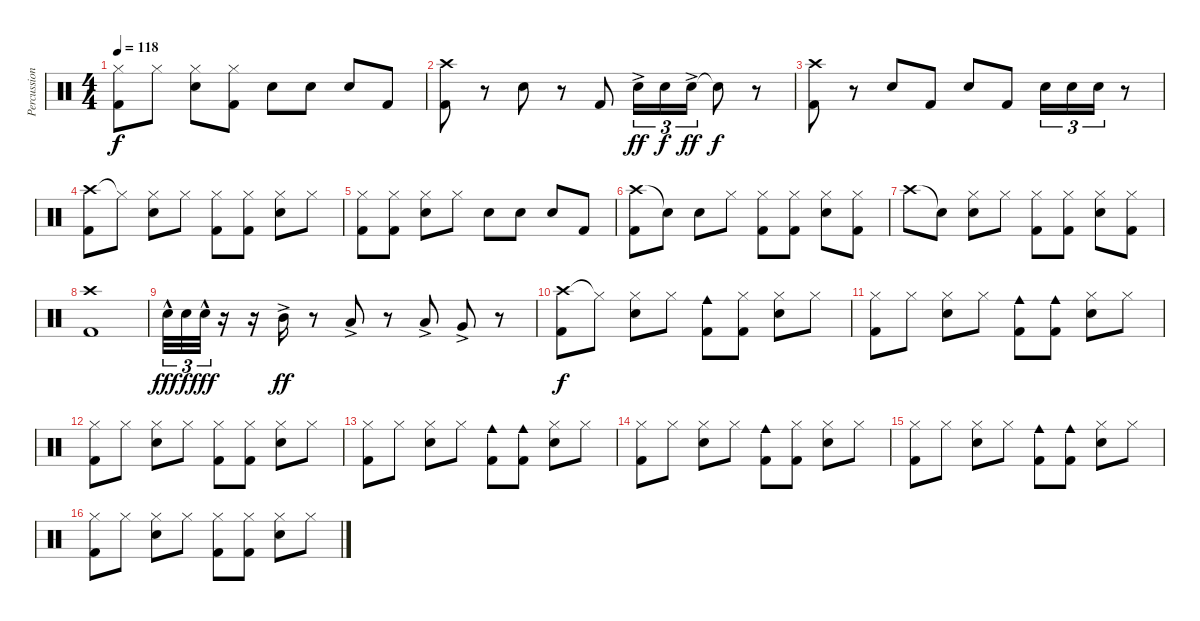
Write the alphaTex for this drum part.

\track ("Percussion" "Percussion") {instrument percussion}
\staff {score}
\articulation defaults
\ts (4 4)
\tempo 118
\clef neutral
\ks c
("Hi-Hat (closed)" "Kick (hit) 2").8{dy f} "Hi-Hat (closed)".8 ("Hi-Hat (closed)" "Snare (hit) 2").8 ("Hi-Hat (closed)" "Kick (hit) 2").8 "Snare (hit) 2".8 "Snare (hit) 2".8 "Snare (hit) 2".8 "Kick (hit) 2".8 |
("Crash high (hit)" "Kick (hit) 2").8 r.8 "Snare (hit) 2".8 r.8 "Kick (hit) 2".8 "Snare (hit) 2"{ac}.16{tu (3 2) dy ff} "Snare (hit) 2".16{tu (3 2) dy f} "Snare (hit) 2"{ac}.16{tu (3 2) dy ff} "Snare (hit)"{t}.8{dy f} r.8 |
("Crash high (hit)" "Kick (hit) 2").8 r.8 "Snare (hit) 2".8 "Kick (hit) 2".8 "Snare (hit) 2".8 "Kick (hit) 2".8 "Snare (hit) 2".16{tu (3 2)} "Snare (hit) 2".16{tu (3 2)} "Snare (hit) 2".16{tu (3 2)} r.8 |
("Crash high (hit)" "Kick (hit) 2").8 "Hi-Hat (closed)"{t}.8 ("Hi-Hat (closed)" "Snare (hit) 2").8 "Hi-Hat (closed)".8 ("Hi-Hat (closed)" "Kick (hit) 2").8 ("Hi-Hat (closed)" "Kick (hit) 2").8 ("Hi-Hat (closed)" "Snare (hit) 2").8 "Hi-Hat (closed)".8 |
("Hi-Hat (closed)" "Kick (hit) 2").8 ("Hi-Hat (closed)" "Kick (hit) 2").8 ("Hi-Hat (closed)" "Snare (hit) 2").8 "Hi-Hat (closed)".8 "Snare (hit) 2".8 "Snare (hit) 2".8 "Snare (hit) 2".8 "Kick (hit) 2".8 |
("Crash high (hit)" "Kick (hit) 2").8 "Snare (hit)"{t}.8 "Snare (hit) 2".8 "Hi-Hat (closed)".8 ("Hi-Hat (closed)" "Kick (hit) 2").8 ("Hi-Hat (closed)" "Kick (hit) 2").8 ("Hi-Hat (closed)" "Snare (hit) 2").8 ("Hi-Hat (closed)" "Kick (hit) 2").8 |
"Crash high (hit)".8 "Snare (hit)"{t}.8 ("Hi-Hat (closed)" "Snare (hit) 2").8 "Hi-Hat (closed)".8 ("Hi-Hat (closed)" "Kick (hit) 2").8 ("Hi-Hat (closed)" "Kick (hit) 2").8 ("Hi-Hat (closed)" "Snare (hit) 2").8 ("Hi-Hat (closed)" "Kick (hit) 2").8 |
("Crash high (hit)" "Kick (hit) 2").1 |
"Snare (hit) 2"{hac}.32{tu (3 2) dy fff} "Snare (hit) 2".32{tu (3 2) dy f} "Snare (hit) 2"{hac}.32{tu (3 2) dy fff} r.16 r.16 "Mid Tom (hit)"{ac}.16{dy ff balance 16} r.8 "Low Tom (hit)"{ac}.8{balance 11} r.8 "Low Floor Tom (hit)"{ac}.8{balance 5} "Very Low Tom (hit)"{ac}.8{balance 0} r.8 |
("Crash high (hit)" "Kick (hit) 2").8{dy f balance 8} "Hi-Hat (closed)"{t}.8 ("Hi-Hat (closed)" "Snare (hit) 2").8 "Hi-Hat (closed)".8 ("Cowbell medium (hit)" "Kick (hit) 2").8 ("Hi-Hat (closed)" "Kick (hit) 2").8 ("Hi-Hat (closed)" "Snare (hit) 2").8 "Hi-Hat (closed)".8 |
("Hi-Hat (closed)" "Kick (hit) 2").8 "Hi-Hat (closed)".8 ("Hi-Hat (closed)" "Snare (hit) 2").8 "Hi-Hat (closed)".8 ("Cowbell medium (hit)" "Kick (hit) 2").8 ("Cowbell medium (hit)" "Kick (hit) 2").8 ("Hi-Hat (closed)" "Snare (hit) 2").8 "Hi-Hat (closed)".8 |
("Hi-Hat (closed)" "Kick (hit) 2").8 "Hi-Hat (closed)".8 ("Hi-Hat (closed)" "Snare (hit) 2").8 "Hi-Hat (closed)".8 ("Hi-Hat (closed)" "Kick (hit) 2").8 ("Hi-Hat (closed)" "Kick (hit) 2").8 ("Hi-Hat (closed)" "Snare (hit) 2").8 "Hi-Hat (closed)".8 |
("Hi-Hat (closed)" "Kick (hit) 2").8 "Hi-Hat (closed)".8 ("Hi-Hat (closed)" "Snare (hit) 2").8 "Hi-Hat (closed)".8 ("Cowbell medium (hit)" "Kick (hit) 2").8 ("Cowbell medium (hit)" "Kick (hit) 2").8 ("Hi-Hat (closed)" "Snare (hit) 2").8 "Hi-Hat (closed)".8 |
("Hi-Hat (closed)" "Kick (hit) 2").8 "Hi-Hat (closed)".8 ("Hi-Hat (closed)" "Snare (hit) 2").8 "Hi-Hat (closed)".8 ("Cowbell medium (hit)" "Kick (hit) 2").8 ("Hi-Hat (closed)" "Kick (hit) 2").8 ("Hi-Hat (closed)" "Snare (hit) 2").8 "Hi-Hat (closed)".8 |
("Hi-Hat (closed)" "Kick (hit) 2").8 "Hi-Hat (closed)".8 ("Hi-Hat (closed)" "Snare (hit) 2").8 "Hi-Hat (closed)".8 ("Cowbell medium (hit)" "Kick (hit) 2").8 ("Cowbell medium (hit)" "Kick (hit) 2").8 ("Hi-Hat (closed)" "Snare (hit) 2").8 "Hi-Hat (closed)".8 |
("Hi-Hat (closed)" "Kick (hit) 2").8 "Hi-Hat (closed)".8 ("Hi-Hat (closed)" "Snare (hit) 2").8 "Hi-Hat (closed)".8 ("Hi-Hat (closed)" "Kick (hit) 2").8 ("Hi-Hat (closed)" "Kick (hit) 2").8 ("Hi-Hat (closed)" "Snare (hit) 2").8 "Hi-Hat (closed)".8
